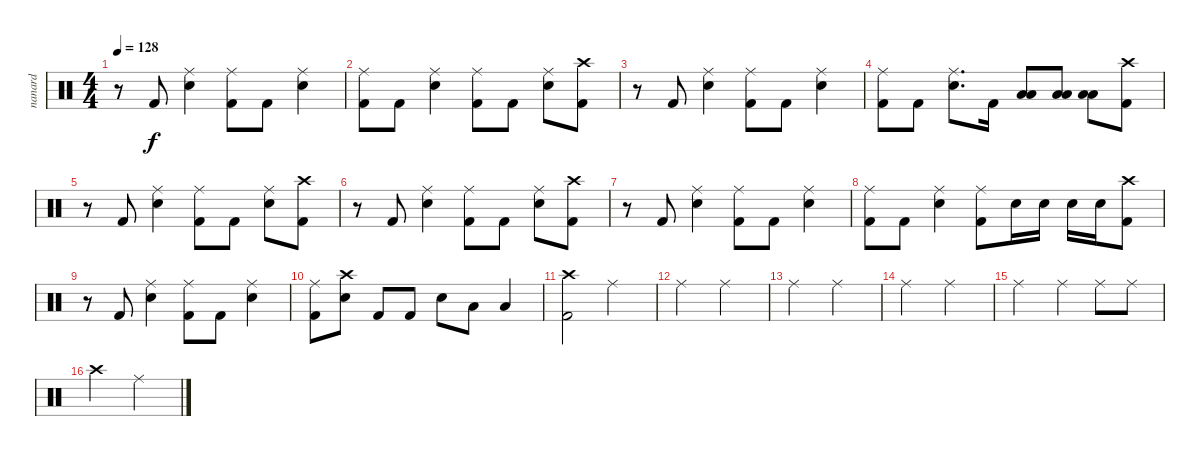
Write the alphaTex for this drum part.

\track ("nanard" "nanard") {instrument percussion}
\staff {score}
\articulation defaults
\ts (4 4)
\tempo 128
\clef neutral
\ks c
r.8{dy f} "Kick (hit) 2".8 ("Ride (middle)" "Electric Snare (hit)").4 ("Ride (middle)" "Kick (hit) 2").8 "Kick (hit) 2".8 ("Ride (middle)" "Electric Snare (hit)").4 |
("Ride (middle)" "Kick (hit) 2").8 "Kick (hit) 2".8 ("Ride (middle)" "Electric Snare (hit)").4 ("Ride (middle)" "Kick (hit) 2").8 "Kick (hit) 2".8 ("Ride (middle)" "Electric Snare (hit)").8 ("Crash high (hit)" "Kick (hit) 2").8 |
r.8 "Kick (hit) 2".8 ("Ride (middle)" "Electric Snare (hit)").4 ("Ride (middle)" "Kick (hit) 2").8 "Kick (hit) 2".8 ("Ride (middle)" "Electric Snare (hit)").4 |
("Ride (middle)" "Kick (hit) 2").8 "Kick (hit) 2".8 ("Ride (middle)" "Electric Snare (hit)").8{d} "Kick (hit) 2".16 ("Low Tom (hit)" "Low Floor Tom (hit)").8 ("Low Tom (hit)" "Low Floor Tom (hit)").8 ("Low Tom (hit)" "Low Floor Tom (hit)").8 ("Crash high (hit)" "Kick (hit) 2").8 |
r.8 "Kick (hit) 2".8 ("Ride (middle)" "Electric Snare (hit)").4 ("Ride (middle)" "Kick (hit) 2").8 "Kick (hit) 2".8 ("Ride (middle)" "Electric Snare (hit)").8 ("Crash high (hit)" "Kick (hit) 2").8 |
r.8 "Kick (hit) 2".8 ("Ride (middle)" "Electric Snare (hit)").4 ("Ride (middle)" "Kick (hit) 2").8 "Kick (hit) 2".8 ("Ride (middle)" "Electric Snare (hit)").8 ("Crash high (hit)" "Kick (hit) 2").8 |
r.8 "Kick (hit) 2".8 ("Ride (middle)" "Electric Snare (hit)").4 ("Ride (middle)" "Kick (hit) 2").8 "Kick (hit) 2".8 ("Ride (middle)" "Electric Snare (hit)").4 |
("Ride (middle)" "Kick (hit) 2").8 "Kick (hit) 2".8 ("Ride (middle)" "Electric Snare (hit)").4 ("Ride (middle)" "Kick (hit) 2").8 "Electric Snare (hit)".16 "Electric Snare (hit)".16 "Electric Snare (hit)".16 "Electric Snare (hit)".16 ("Crash high (hit)" "Kick (hit) 2").8 |
r.8 "Kick (hit) 2".8 ("Ride (middle)" "Electric Snare (hit)").4 ("Ride (middle)" "Kick (hit) 2").8 "Kick (hit) 2".8 ("Ride (middle)" "Electric Snare (hit)").4 |
("Ride (middle)" "Kick (hit) 2").8 ("Crash high (hit)" "Electric Snare (hit)").8 "Kick (hit) 2".8 "Kick (hit) 2".8 "Electric Snare (hit)".8 "Low Tom (hit)".8 "Low Floor Tom (hit)".4 |
("Crash high (hit)" "Kick (hit) 2").2 "Ride (middle)".2 |
"Ride (middle)".2 "Ride (middle)".2 |
"Ride (middle)".2 "Ride (middle)".2 |
"Ride (middle)".2 "Ride (middle)".2 |
"Ride (middle)".2 "Ride (middle)".4 "Ride (middle)".8 "Ride (middle)".8 |
"Crash high (hit)".2 "Ride (middle)".2
